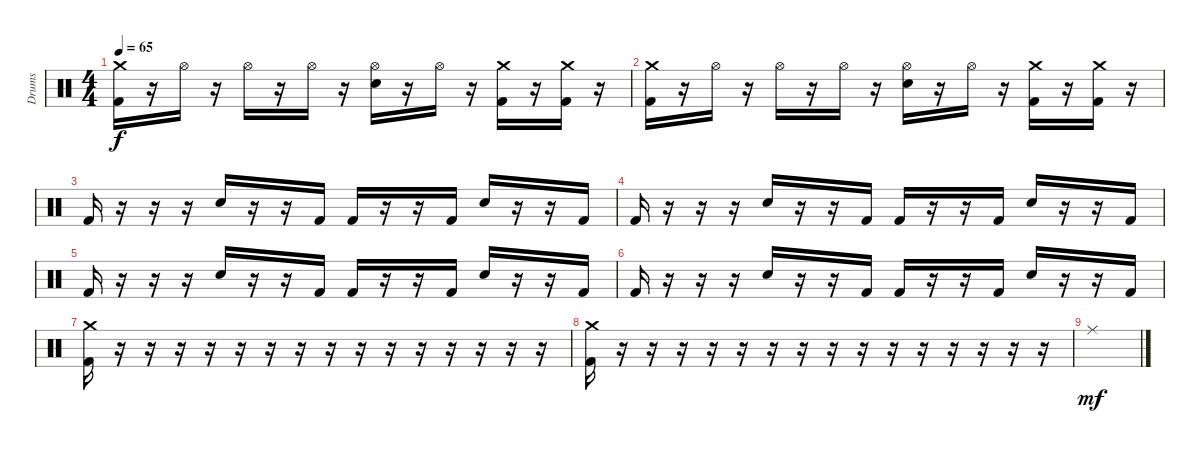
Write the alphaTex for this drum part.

\track ("Drums" "Drums") {instrument percussion}
\staff {score}
\articulation defaults
\ts (4 4)
\tempo 65
\clef neutral
\ks c
("Kick (hit) 2" "Crash medium (hit)").16{dy f} r.16 "Hi-Hat (open)".16 r.16 "Hi-Hat (open)".16 r.16 "Hi-Hat (open)".16 r.16 ("Hi-Hat (open)" "Snare (hit) 2").16 r.16 "Hi-Hat (open)".16 r.16 ("Crash medium (hit)" "Kick (hit) 2").16 r.16 ("Crash medium (hit)" "Kick (hit) 2").16 r.16 |
("Kick (hit) 2" "Crash medium (hit)").16 r.16 "Hi-Hat (open)".16 r.16 "Hi-Hat (open)".16 r.16 "Hi-Hat (open)".16 r.16 ("Hi-Hat (open)" "Snare (hit) 2").16 r.16 "Hi-Hat (open)".16 r.16 ("Crash medium (hit)" "Kick (hit) 2").16 r.16 ("Crash medium (hit)" "Kick (hit) 2").16 r.16 |
"Kick (hit) 2".16 r.16 r.16 r.16 "Snare (hit) 2".16 r.16 r.16 "Kick (hit) 2".16 "Kick (hit) 2".16 r.16 r.16 "Kick (hit) 2".16 "Snare (hit) 2".16 r.16 r.16 "Kick (hit) 2".16 |
"Kick (hit) 2".16 r.16 r.16 r.16 "Snare (hit) 2".16 r.16 r.16 "Kick (hit) 2".16 "Kick (hit) 2".16 r.16 r.16 "Kick (hit) 2".16 "Snare (hit) 2".16 r.16 r.16 "Kick (hit) 2".16 |
"Kick (hit) 2".16 r.16 r.16 r.16 "Snare (hit) 2".16 r.16 r.16 "Kick (hit) 2".16 "Kick (hit) 2".16 r.16 r.16 "Kick (hit) 2".16 "Snare (hit) 2".16 r.16 r.16 "Kick (hit) 2".16 |
"Kick (hit) 2".16 r.16 r.16 r.16 "Snare (hit) 2".16 r.16 r.16 "Kick (hit) 2".16 "Kick (hit) 2".16 r.16 r.16 "Kick (hit) 2".16 "Snare (hit) 2".16 r.16 r.16 "Kick (hit) 2".16 |
("Kick (hit) 2" "Crash medium (hit)").16 r.16 r.16 r.16 r.16 r.16 r.16 r.16 r.16 r.16 r.16 r.16 r.16 r.16 r.16 r.16 |
("Kick (hit) 2" "Crash medium (hit)").16 r.16 r.16 r.16 r.16 r.16 r.16 r.16 r.16 r.16 r.16 r.16 r.16 r.16 r.16 r.16 |
"Ride (middle)".1{dy mf}
